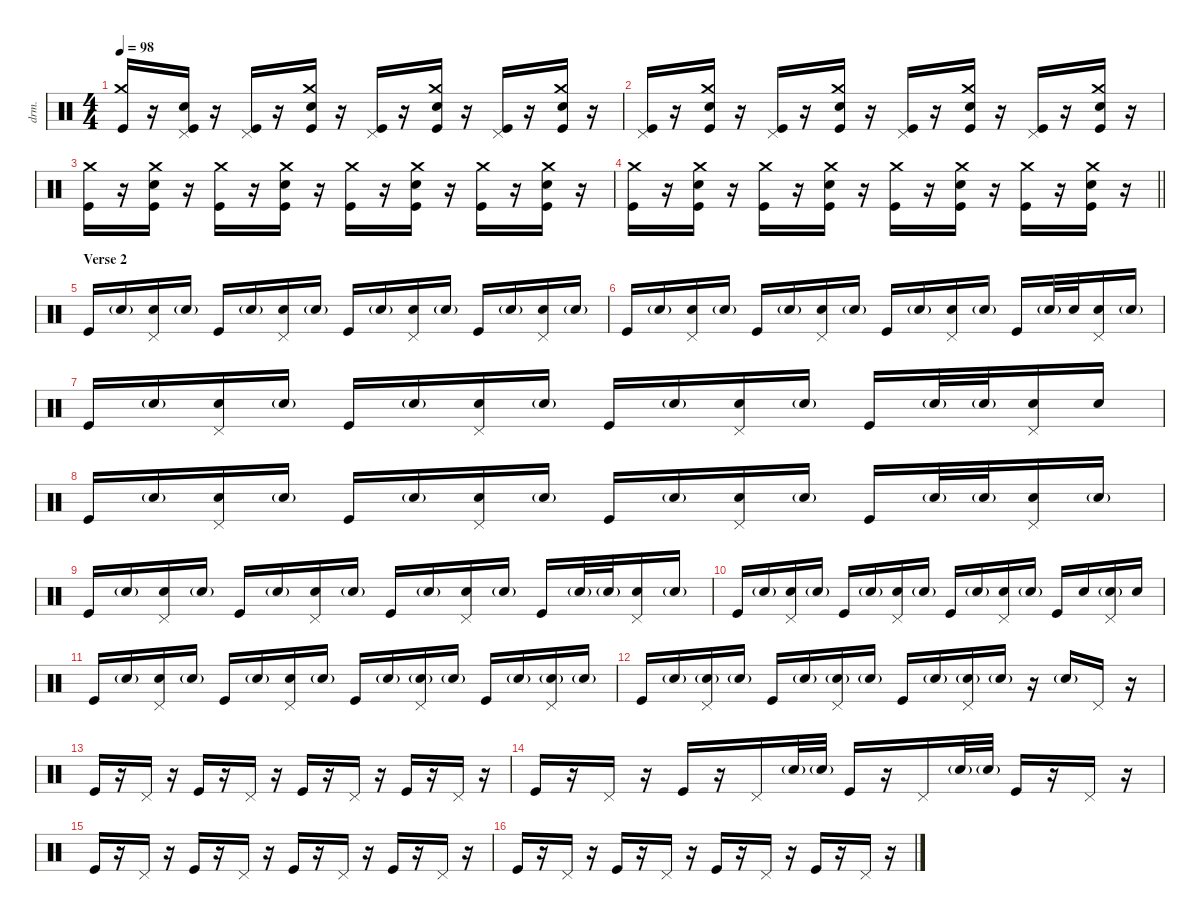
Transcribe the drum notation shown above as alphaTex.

\defaultSystemsLayout 4
\hideDynamics
\bracketExtendMode nobrackets
\otherSystemsTrackNameOrientation horizontal
\track ("Duris Maxwell" "drm.") {instrument percussion}
\staff {score}
\articulation defaults
\ts (4 4)
\tempo 98
\clef neutral
\ks c
("Crash medium (hit)" "Kick (hit)").16{dy f beam Up} r.16{beam Up} ("Pedal Hi-Hat (hit)" "Snare (hit) 2" "Kick (hit)").16{beam Up} r.16{beam Up} ("Pedal Hi-Hat (hit)" "Kick (hit)").16{beam Up} r.16{beam Up} ("Crash medium (hit)" "Snare (hit) 2" "Kick (hit)").16{beam Up} r.16{beam Up} ("Pedal Hi-Hat (hit)" "Kick (hit)").16{beam Up} r.16{beam Up} ("Crash medium (hit)" "Snare (hit) 2" "Kick (hit)").16{beam Up} r.16{beam Up} ("Pedal Hi-Hat (hit)" "Kick (hit)").16{beam Up} r.16{beam Up} ("Crash medium (hit)" "Snare (hit) 2" "Kick (hit)").16{beam Up} r.16{beam Up} |
("Pedal Hi-Hat (hit)" "Kick (hit)").16{beam Up} r.16{beam Up} ("Crash medium (hit)" "Snare (hit) 2" "Kick (hit)").16{beam Up} r.16{beam Up} ("Pedal Hi-Hat (hit)" "Kick (hit)").16{beam Up} r.16{beam Up} ("Crash medium (hit)" "Snare (hit) 2" "Kick (hit)").16{beam Up} r.16{beam Up} ("Pedal Hi-Hat (hit)" "Kick (hit)").16{beam Up} r.16{beam Up} ("Crash medium (hit)" "Snare (hit) 2" "Kick (hit)").16{beam Up} r.16{beam Up} ("Pedal Hi-Hat (hit)" "Kick (hit)").16{beam Up} r.16{beam Up} ("Crash medium (hit)" "Snare (hit) 2" "Kick (hit)").16{beam Up} r.16{beam Up} |
("Crash medium (hit)" "Kick (hit)").16{beam Down} r.16{beam Down} ("Crash medium (hit)" "Snare (hit) 2" "Kick (hit)").16{beam Down} r.16{beam Down} ("Crash medium (hit)" "Kick (hit)").16{beam Down} r.16{beam Down} ("Crash medium (hit)" "Snare (hit) 2" "Kick (hit)").16{beam Down} r.16{beam Down} ("Crash medium (hit)" "Kick (hit)").16{beam Down} r.16{beam Down} ("Crash medium (hit)" "Snare (hit) 2" "Kick (hit)").16{beam Down} r.16{beam Down} ("Crash medium (hit)" "Kick (hit)").16{beam Down} r.16{beam Down} ("Crash medium (hit)" "Snare (hit) 2" "Kick (hit)").16{beam Down} r.16{beam Down} |
\barLineRight lightlight
("Crash medium (hit)" "Kick (hit)").16{beam Down} r.16{beam Down} ("Crash medium (hit)" "Snare (hit) 2" "Kick (hit)").16{beam Down} r.16{beam Down} ("Crash medium (hit)" "Kick (hit)").16{beam Down} r.16{beam Down} ("Crash medium (hit)" "Snare (hit) 2" "Kick (hit)").16{beam Down} r.16{beam Down} ("Crash medium (hit)" "Kick (hit)").16{beam Down} r.16{beam Down} ("Crash medium (hit)" "Snare (hit) 2" "Kick (hit)").16{beam Down} r.16{beam Down} ("Crash medium (hit)" "Kick (hit)").16{beam Down} r.16{beam Down} ("Crash medium (hit)" "Snare (hit) 2" "Kick (hit)").16{beam Down} r.16{beam Down} |
\section ("" "Verse 2")
"Kick (hit)".16{beam Up} "Snare (hit) 2"{g}.16{beam Up} ("Pedal Hi-Hat (hit)" "Snare (hit) 2").16{beam Up} "Snare (hit) 2"{g}.16{beam Up} "Kick (hit)".16{beam Up} "Snare (hit) 2"{g}.16{beam Up} ("Pedal Hi-Hat (hit)" "Snare (hit) 2").16{beam Up} "Snare (hit) 2"{g}.16{beam Up} "Kick (hit)".16{beam Up} "Snare (hit) 2"{g}.16{beam Up} ("Pedal Hi-Hat (hit)" "Snare (hit) 2").16{beam Up} "Snare (hit) 2"{g}.16{beam Up} "Kick (hit)".16{beam Up} "Snare (hit) 2"{g}.16{beam Up} ("Pedal Hi-Hat (hit)" "Snare (hit) 2").16{beam Up} "Snare (hit) 2"{g}.16{beam Up} |
"Kick (hit)".16{beam Up} "Snare (hit) 2"{g}.16{beam Up} ("Pedal Hi-Hat (hit)" "Snare (hit) 2").16{beam Up} "Snare (hit) 2"{g}.16{beam Up} "Kick (hit)".16{beam Up} "Snare (hit) 2"{g}.16{beam Up} ("Pedal Hi-Hat (hit)" "Snare (hit) 2").16{beam Up} "Snare (hit) 2"{g}.16{beam Up} "Kick (hit)".16{beam Up} "Snare (hit) 2"{g}.16{beam Up} ("Pedal Hi-Hat (hit)" "Snare (hit) 2").16{beam Up} "Snare (hit) 2"{g}.16{beam Up} "Kick (hit)".16{beam Up} "Snare (hit) 2"{g}.32{beam Up} "Snare (hit) 2".32{beam Up} ("Pedal Hi-Hat (hit)" "Snare (hit) 2").16{beam Up} "Snare (hit) 2"{g}.16{beam Up} |
"Kick (hit)".16{beam Up} "Snare (hit) 2"{g}.16{beam Up} ("Pedal Hi-Hat (hit)" "Snare (hit) 2").16{beam Up} "Snare (hit) 2"{g}.16{beam Up} "Kick (hit)".16{beam Up} "Snare (hit) 2"{g}.16{beam Up} ("Pedal Hi-Hat (hit)" "Snare (hit) 2").16{beam Up} "Snare (hit) 2"{g}.16{beam Up} "Kick (hit)".16{beam Up} "Snare (hit) 2"{g}.16{beam Up} ("Pedal Hi-Hat (hit)" "Snare (hit) 2").16{beam Up} "Snare (hit) 2"{g}.16{beam Up} "Kick (hit)".16{beam Up} "Snare (hit) 2"{g}.32{beam Up} "Snare (hit) 2"{g}.32{beam Up} ("Pedal Hi-Hat (hit)" "Snare (hit) 2").16{beam Up} "Snare (hit) 2".16{beam Up} |
"Kick (hit)".16{beam Up} "Snare (hit) 2"{g}.16{beam Up} ("Pedal Hi-Hat (hit)" "Snare (hit) 2").16{beam Up} "Snare (hit) 2"{g}.16{beam Up} "Kick (hit)".16{beam Up} "Snare (hit) 2"{g}.16{beam Up} ("Pedal Hi-Hat (hit)" "Snare (hit) 2").16{beam Up} "Snare (hit) 2"{g}.16{beam Up} "Kick (hit)".16{beam Up} "Snare (hit) 2"{g}.16{beam Up} ("Pedal Hi-Hat (hit)" "Snare (hit) 2").16{beam Up} "Snare (hit) 2"{g}.16{beam Up} "Kick (hit)".16{beam Up} "Snare (hit) 2"{g}.32{beam Up} "Snare (hit) 2"{g}.32{beam Up} ("Pedal Hi-Hat (hit)" "Snare (hit) 2").16{beam Up} "Snare (hit) 2"{g}.16{beam Up} |
"Kick (hit)".16{beam Up} "Snare (hit) 2"{g}.16{beam Up} ("Pedal Hi-Hat (hit)" "Snare (hit) 2").16{beam Up} "Snare (hit) 2"{g}.16{beam Up} "Kick (hit)".16{beam Up} "Snare (hit) 2"{g}.16{beam Up} ("Pedal Hi-Hat (hit)" "Snare (hit) 2").16{beam Up} "Snare (hit) 2"{g}.16{beam Up} "Kick (hit)".16{beam Up} "Snare (hit) 2"{g}.16{beam Up} ("Pedal Hi-Hat (hit)" "Snare (hit) 2").16{beam Up} "Snare (hit) 2"{g}.16{beam Up} "Kick (hit)".16{beam Up} "Snare (hit) 2"{g}.32{beam Up} "Snare (hit) 2"{g}.32{beam Up} ("Pedal Hi-Hat (hit)" "Snare (hit) 2").16{beam Up} "Snare (hit) 2"{g}.16{beam Up} |
"Kick (hit)".16{beam Up} "Snare (hit) 2"{g}.16{beam Up} ("Pedal Hi-Hat (hit)" "Snare (hit) 2").16{beam Up} "Snare (hit) 2"{g}.16{beam Up} "Kick (hit)".16{beam Up} "Snare (hit) 2"{g}.16{beam Up} ("Pedal Hi-Hat (hit)" "Snare (hit) 2").16{beam Up} "Snare (hit) 2"{g}.16{beam Up} "Kick (hit)".16{beam Up} "Snare (hit) 2"{g}.16{beam Up} ("Pedal Hi-Hat (hit)" "Snare (hit) 2").16{beam Up} "Snare (hit) 2"{g}.16{beam Up} "Kick (hit)".16{beam Up} "Snare (hit) 2".16{beam Up} ("Pedal Hi-Hat (hit)" "Snare (hit) 2"{g}).16{beam Up} "Snare (hit) 2".16{beam Up} |
"Kick (hit)".16{beam Up} "Snare (hit) 2"{g}.16{beam Up} ("Pedal Hi-Hat (hit)" "Snare (hit) 2").16{beam Up} "Snare (hit) 2"{g}.16{beam Up} "Kick (hit)".16{beam Up} "Snare (hit) 2"{g}.16{beam Up} ("Pedal Hi-Hat (hit)" "Snare (hit) 2").16{beam Up} "Snare (hit) 2"{g}.16{beam Up} "Kick (hit)".16{beam Up} "Snare (hit) 2"{g}.16{beam Up} ("Pedal Hi-Hat (hit)" "Snare (hit) 2"{g}).16{beam Up} "Snare (hit) 2"{g}.16{beam Up} "Kick (hit)".16{beam Up} "Snare (hit) 2"{g}.16{beam Up} ("Pedal Hi-Hat (hit)" "Snare (hit) 2"{g}).16{beam Up} "Snare (hit) 2"{g}.16{beam Up} |
"Kick (hit)".16{beam Up} "Snare (hit) 2"{g}.16{beam Up} ("Pedal Hi-Hat (hit)" "Snare (hit) 2"{g}).16{beam Up} "Snare (hit) 2"{g}.16{beam Up} "Kick (hit)".16{beam Up} "Snare (hit) 2"{g}.16{beam Up} ("Pedal Hi-Hat (hit)" "Snare (hit) 2"{g}).16{beam Up} "Snare (hit) 2"{g}.16{beam Up} "Kick (hit)".16{beam Up} "Snare (hit) 2"{g}.16{beam Up} ("Pedal Hi-Hat (hit)" "Snare (hit) 2"{g}).16{beam Up} "Snare (hit) 2"{g}.16{beam Up} r.16{beam Up} "Snare (hit) 2"{g}.16{beam Up} "Pedal Hi-Hat (hit)".16{beam Up} r.16{beam Up} |
"Kick (hit)".16{beam Up} r.16{beam Up} "Pedal Hi-Hat (hit)".16{beam Up} r.16{beam Up} "Kick (hit)".16{beam Up} r.16{beam Up} "Pedal Hi-Hat (hit)".16{beam Up} r.16{beam Up} "Kick (hit)".16{beam Up} r.16{beam Up} "Pedal Hi-Hat (hit)".16{beam Up} r.16{beam Up} "Kick (hit)".16{beam Up} r.16{beam Up} "Pedal Hi-Hat (hit)".16{beam Up} r.16{beam Up} |
"Kick (hit)".16{beam Up} r.16{beam Up} "Pedal Hi-Hat (hit)".16{beam Up} r.16{beam Up} "Kick (hit)".16{beam Up} r.16{beam Up} "Pedal Hi-Hat (hit)".16{beam Up} "Snare (hit) 2"{g}.32{beam Up} "Snare (hit) 2"{g}.32{beam Up} "Kick (hit)".16{beam Up} r.16{beam Up} "Pedal Hi-Hat (hit)".16{beam Up} "Snare (hit) 2"{g}.32{beam Up} "Snare (hit) 2"{g}.32{beam Up} "Kick (hit)".16{beam Up} r.16{beam Up} "Pedal Hi-Hat (hit)".16{beam Up} r.16{beam Up} |
"Kick (hit)".16{beam Up} r.16{beam Up} "Pedal Hi-Hat (hit)".16{beam Up} r.16{beam Up} "Kick (hit)".16{beam Up} r.16{beam Up} "Pedal Hi-Hat (hit)".16{beam Up} r.16{beam Up} "Kick (hit)".16{beam Up} r.16{beam Up} "Pedal Hi-Hat (hit)".16{beam Up} r.16{beam Up} "Kick (hit)".16{beam Up} r.16{beam Up} "Pedal Hi-Hat (hit)".16{beam Up} r.16{beam Up} |
"Kick (hit)".16{beam Up} r.16{beam Up} "Pedal Hi-Hat (hit)".16{beam Up} r.16{beam Up} "Kick (hit)".16{beam Up} r.16{beam Up} "Pedal Hi-Hat (hit)".16{beam Up} r.16{beam Up} "Kick (hit)".16{beam Up} r.16{beam Up} "Pedal Hi-Hat (hit)".16{beam Up} r.16{beam Up} "Kick (hit)".16{beam Up} r.16{beam Up} "Pedal Hi-Hat (hit)".16{beam Up} r.16{beam Up}
